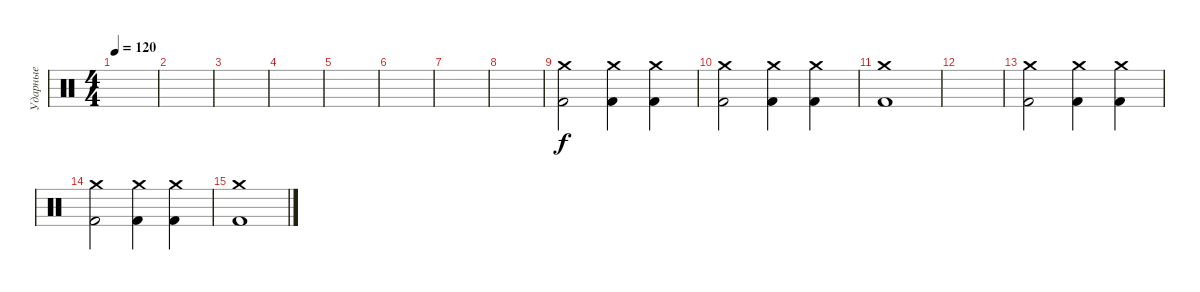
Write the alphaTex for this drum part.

\track ("Ударные" "Ударные") {instrument percussion}
\staff {score}
\articulation defaults
\ts (4 4)
\tempo 120
\clef neutral
\ks c
|
|
|
|
|
|
|
|
("Kick (hit) 2" "Crash medium (hit)").2 ("Kick (hit) 2" "Crash medium (hit)").4 ("Kick (hit) 2" "Crash medium (hit)").4 |
("Kick (hit) 2" "Crash medium (hit)").2 ("Kick (hit) 2" "Crash medium (hit)").4 ("Kick (hit) 2" "Crash medium (hit)").4 |
("Kick (hit) 2" "Crash medium (hit)").1 |
|
("Kick (hit) 2" "Crash medium (hit)").2 ("Kick (hit) 2" "Crash medium (hit)").4 ("Kick (hit) 2" "Crash medium (hit)").4 |
("Kick (hit) 2" "Crash medium (hit)").2 ("Kick (hit) 2" "Crash medium (hit)").4 ("Kick (hit) 2" "Crash medium (hit)").4 |
("Kick (hit) 2" "Crash medium (hit)").1
